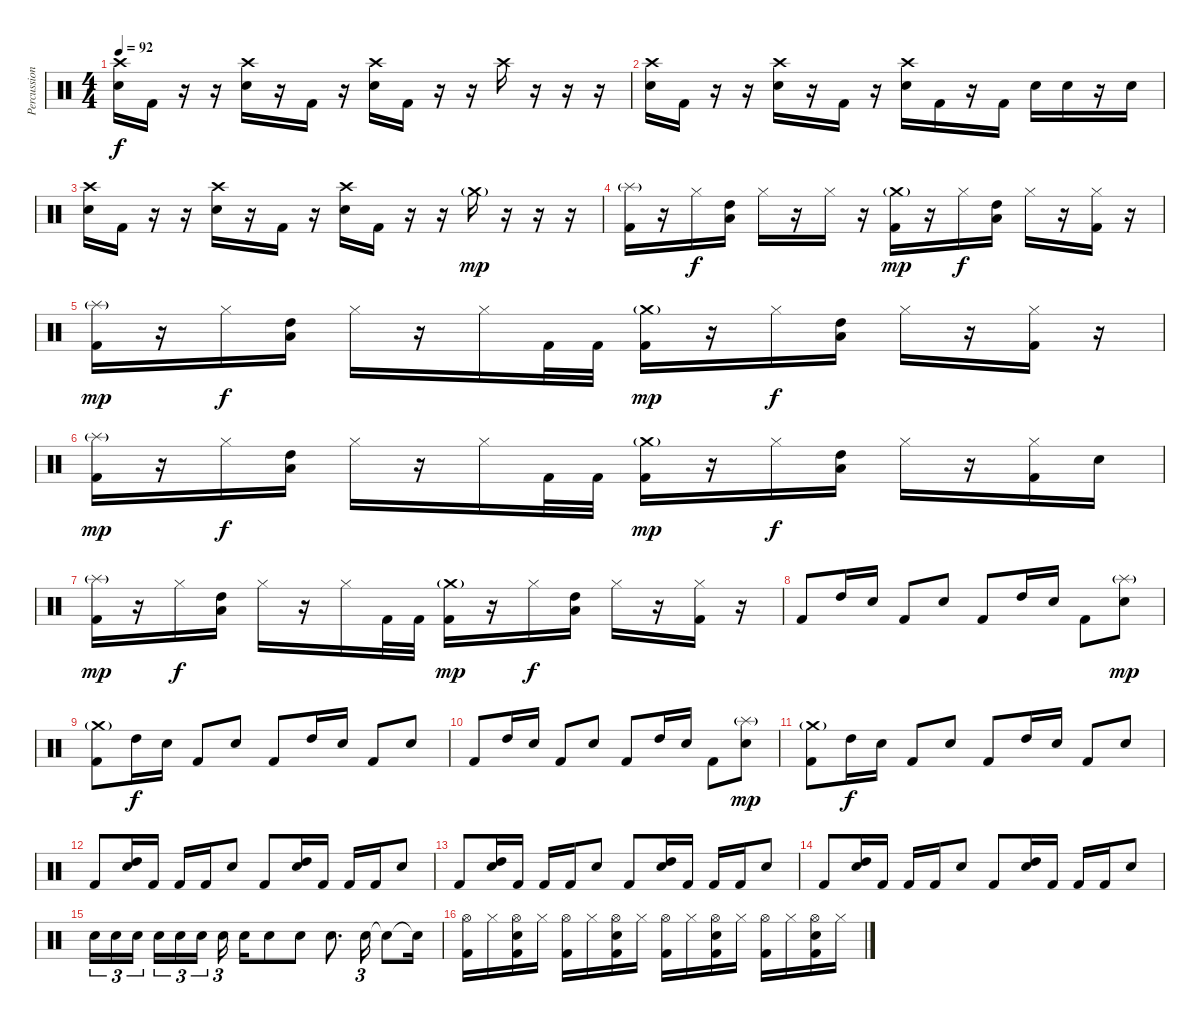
\track ("Percussion" "Percussion") {instrument percussion}
\staff {score}
\articulation defaults
\ts (4 4)
\tempo 92
\clef neutral
\ks c
("Crash high (hit)" "Electric Snare (hit)").16{dy f} "Kick (hit) 2".16 r.16 r.16 ("Crash high (hit)" "Electric Snare (hit)").16 r.16 "Kick (hit) 2".16 r.16 ("Crash high (hit)" "Electric Snare (hit)").16 "Kick (hit) 2".16 r.16 r.16 "Crash high (hit)".16 r.16 r.16 r.16 |
("Crash high (hit)" "Electric Snare (hit)").16 "Kick (hit) 2".16 r.16 r.16 ("Crash high (hit)" "Electric Snare (hit)").16 r.16 "Kick (hit) 2".16 r.16 ("Crash high (hit)" "Electric Snare (hit)").16 "Kick (hit) 2".16 r.16 "Kick (hit) 2".16 "Electric Snare (hit)".16 "Electric Snare (hit)".16 r.16 "Electric Snare (hit)".16 |
("Crash high (hit)" "Electric Snare (hit)").16 "Kick (hit) 2".16 r.16 r.16 ("Crash high (hit)" "Electric Snare (hit)").16 r.16 "Kick (hit) 2".16 r.16 ("Crash high (hit)" "Electric Snare (hit)").16 "Kick (hit) 2".16 r.16 r.16 "Crash medium (hit)"{g}.16{dy mp} r.16 r.16 r.16 |
("Splash (hit)"{g} "Kick (hit) 2").16 r.16 "Hi-Hat (closed)".16{dy f} ("Low Tom (hit)" "High Tom (hit)").16 "Hi-Hat (closed)".16 r.16 "Hi-Hat (closed)".16 r.16 ("Crash medium (hit)"{g} "Kick (hit) 2").16{dy mp} r.16 "Hi-Hat (closed)".16{dy f} ("Low Tom (hit)" "High Tom (hit)").16 "Hi-Hat (closed)".16 r.16 ("Hi-Hat (closed)" "Kick (hit) 2").16 r.16 |
("Splash (hit)"{g} "Kick (hit) 2").16{dy mp} r.16 "Hi-Hat (closed)".16{dy f} ("Low Tom (hit)" "High Tom (hit)").16 "Hi-Hat (closed)".16 r.16 "Hi-Hat (closed)".16 "Kick (hit) 2".32 "Kick (hit) 2".32 ("Crash medium (hit)"{g} "Kick (hit) 2").16{dy mp} r.16 "Hi-Hat (closed)".16{dy f} ("Low Tom (hit)" "High Tom (hit)").16 "Hi-Hat (closed)".16 r.16 ("Hi-Hat (closed)" "Kick (hit) 2").16 r.16 |
("Splash (hit)"{g} "Kick (hit) 2").16{dy mp} r.16 "Hi-Hat (closed)".16{dy f} ("Low Tom (hit)" "High Tom (hit)").16 "Hi-Hat (closed)".16 r.16 "Hi-Hat (closed)".16 "Kick (hit) 2".32 "Kick (hit) 2".32 ("Crash medium (hit)"{g} "Kick (hit) 2").16{dy mp} r.16 "Hi-Hat (closed)".16{dy f} ("Low Tom (hit)" "High Tom (hit)").16 "Hi-Hat (closed)".16 r.16 ("Hi-Hat (closed)" "Kick (hit) 2").16 "Electric Snare (hit)".16 |
("Splash (hit)"{g} "Kick (hit) 2").16{dy mp} r.16 "Hi-Hat (closed)".16{dy f} ("Low Tom (hit)" "High Tom (hit)").16 "Hi-Hat (closed)".16 r.16 "Hi-Hat (closed)".16 "Kick (hit) 2".32 "Kick (hit) 2".32 ("Crash medium (hit)"{g} "Kick (hit) 2").16{dy mp} r.16 "Hi-Hat (closed)".16{dy f} ("Low Tom (hit)" "High Tom (hit)").16 "Hi-Hat (closed)".16 r.16 ("Hi-Hat (closed)" "Kick (hit) 2").16 r.16 |
"Kick (hit) 2".8 "High Tom (hit)".16 "Electric Snare (hit)".16 "Kick (hit) 2".8 "Snare (hit) 2".8 "Kick (hit) 2".8 "High Tom (hit)".16 "Electric Snare (hit)".16 "Kick (hit) 2".8 ("Splash (hit)"{g} "Snare (hit) 2").8{dy mp} |
("Crash medium (hit)"{g} "Kick (hit) 2").8 "High Tom (hit)".16{dy f} "Electric Snare (hit)".16 "Kick (hit) 2".8 "Snare (hit) 2".8 "Kick (hit) 2".8 "High Tom (hit)".16 "Electric Snare (hit)".16 "Kick (hit) 2".8 "Snare (hit) 2".8 |
"Kick (hit) 2".8 "High Tom (hit)".16 "Electric Snare (hit)".16 "Kick (hit) 2".8 "Snare (hit) 2".8 "Kick (hit) 2".8 "High Tom (hit)".16 "Electric Snare (hit)".16 "Kick (hit) 2".8 ("Splash (hit)"{g} "Snare (hit) 2").8{dy mp} |
("Crash medium (hit)"{g} "Kick (hit) 2").8 "High Tom (hit)".16{dy f} "Electric Snare (hit)".16 "Kick (hit) 2".8 "Snare (hit) 2".8 "Kick (hit) 2".8 "High Tom (hit)".16 "Electric Snare (hit)".16 "Kick (hit) 2".8 "Snare (hit) 2".8 |
"Kick (hit) 2".8 ("Electric Snare (hit)" "High Tom (hit)").16 "Kick (hit) 2".16 "Kick (hit) 2".16 "Kick (hit) 2".16 "Electric Snare (hit)".8 "Kick (hit) 2".8 ("Electric Snare (hit)" "High Tom (hit)").16 "Kick (hit) 2".16 "Kick (hit) 2".16 "Kick (hit) 2".16 "Electric Snare (hit)".8 |
"Kick (hit) 2".8 ("Electric Snare (hit)" "High Tom (hit)").16 "Kick (hit) 2".16 "Kick (hit) 2".16 "Kick (hit) 2".16 "Electric Snare (hit)".8 "Kick (hit) 2".8 ("Electric Snare (hit)" "High Tom (hit)").16 "Kick (hit) 2".16 "Kick (hit) 2".16 "Kick (hit) 2".16 "Electric Snare (hit)".8 |
"Kick (hit) 2".8 ("Electric Snare (hit)" "High Tom (hit)").16 "Kick (hit) 2".16 "Kick (hit) 2".16 "Kick (hit) 2".16 "Electric Snare (hit)".8 "Kick (hit) 2".8 ("Electric Snare (hit)" "High Tom (hit)").16 "Kick (hit) 2".16 "Kick (hit) 2".16 "Kick (hit) 2".16 "Electric Snare (hit)".8 |
"Electric Snare (hit)".16{tu (3 2)} "Electric Snare (hit)".16{tu (3 2)} "Electric Snare (hit)".16{tu (3 2) beam splitsecondary} "Electric Snare (hit)".16{tu (3 2)} "Electric Snare (hit)".16{tu (3 2)} "Electric Snare (hit)".16{tu (3 2)} "Electric Snare (hit)".16{tu (3 2) beam splitsecondary} "Electric Snare (hit)".16 "Electric Snare (hit)".8 "Electric Snare (hit)".8 "Electric Snare (hit)".8{d} "Electric Snare (hit)".16{tu (3 2)} "Snare (hit)"{t}.8 "Snare (hit)"{t}.16 |
("Hi-Hat (open)" "Kick (hit) 2").16 "Hi-Hat (closed)".16 ("Hi-Hat (open)" "Electric Snare (hit)" "Kick (hit) 2").16 "Hi-Hat (closed)".16 ("Hi-Hat (open)" "Kick (hit) 2").16 "Hi-Hat (closed)".16 ("Hi-Hat (open)" "Electric Snare (hit)" "Kick (hit) 2").16 "Hi-Hat (closed)".16 ("Hi-Hat (open)" "Kick (hit) 2").16 "Hi-Hat (closed)".16 ("Hi-Hat (open)" "Electric Snare (hit)" "Kick (hit) 2").16 "Hi-Hat (closed)".16 ("Hi-Hat (open)" "Kick (hit) 2").16 "Hi-Hat (closed)".16 ("Hi-Hat (open)" "Electric Snare (hit)" "Kick (hit) 2").16 "Hi-Hat (closed)".16
